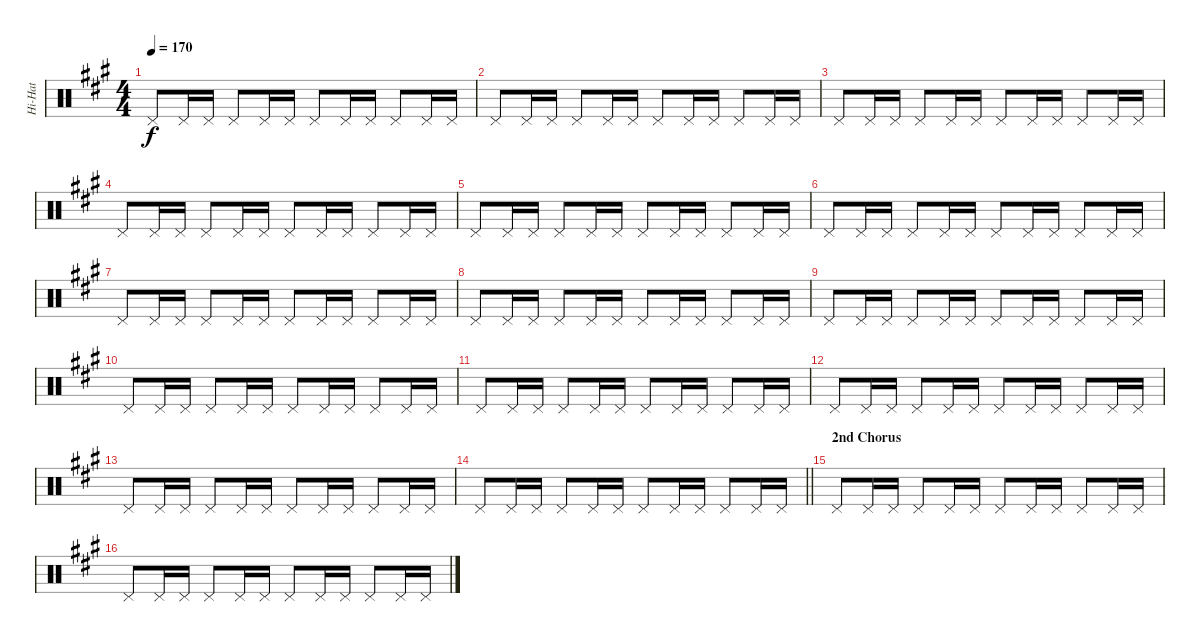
\track ("Hi-Hat" "Hi-Hat") {instrument percussion}
\staff {score}
\articulation defaults
\ts (4 4)
\tempo 170
\clef neutral
\ks a "Pedal Hi-Hat (hit)".8{dy f} "Pedal Hi-Hat (hit)".16 "Pedal Hi-Hat (hit)".16 "Pedal Hi-Hat (hit)".8 "Pedal Hi-Hat (hit)".16 "Pedal Hi-Hat (hit)".16 "Pedal Hi-Hat (hit)".8 "Pedal Hi-Hat (hit)".16 "Pedal Hi-Hat (hit)".16 "Pedal Hi-Hat (hit)".8 "Pedal Hi-Hat (hit)".16 "Pedal Hi-Hat (hit)".16
|
"Pedal Hi-Hat (hit)".8 "Pedal Hi-Hat (hit)".16 "Pedal Hi-Hat (hit)".16 "Pedal Hi-Hat (hit)".8 "Pedal Hi-Hat (hit)".16 "Pedal Hi-Hat (hit)".16 "Pedal Hi-Hat (hit)".8 "Pedal Hi-Hat (hit)".16 "Pedal Hi-Hat (hit)".16 "Pedal Hi-Hat (hit)".8 "Pedal Hi-Hat (hit)".16 "Pedal Hi-Hat (hit)".16 |
"Pedal Hi-Hat (hit)".8 "Pedal Hi-Hat (hit)".16 "Pedal Hi-Hat (hit)".16 "Pedal Hi-Hat (hit)".8 "Pedal Hi-Hat (hit)".16 "Pedal Hi-Hat (hit)".16 "Pedal Hi-Hat (hit)".8 "Pedal Hi-Hat (hit)".16 "Pedal Hi-Hat (hit)".16 "Pedal Hi-Hat (hit)".8 "Pedal Hi-Hat (hit)".16 "Pedal Hi-Hat (hit)".16 |
"Pedal Hi-Hat (hit)".8 "Pedal Hi-Hat (hit)".16 "Pedal Hi-Hat (hit)".16 "Pedal Hi-Hat (hit)".8 "Pedal Hi-Hat (hit)".16 "Pedal Hi-Hat (hit)".16 "Pedal Hi-Hat (hit)".8 "Pedal Hi-Hat (hit)".16 "Pedal Hi-Hat (hit)".16 "Pedal Hi-Hat (hit)".8 "Pedal Hi-Hat (hit)".16 "Pedal Hi-Hat (hit)".16 |
"Pedal Hi-Hat (hit)".8 "Pedal Hi-Hat (hit)".16 "Pedal Hi-Hat (hit)".16 "Pedal Hi-Hat (hit)".8 "Pedal Hi-Hat (hit)".16 "Pedal Hi-Hat (hit)".16 "Pedal Hi-Hat (hit)".8 "Pedal Hi-Hat (hit)".16 "Pedal Hi-Hat (hit)".16 "Pedal Hi-Hat (hit)".8 "Pedal Hi-Hat (hit)".16 "Pedal Hi-Hat (hit)".16 |
"Pedal Hi-Hat (hit)".8 "Pedal Hi-Hat (hit)".16 "Pedal Hi-Hat (hit)".16 "Pedal Hi-Hat (hit)".8 "Pedal Hi-Hat (hit)".16 "Pedal Hi-Hat (hit)".16 "Pedal Hi-Hat (hit)".8 "Pedal Hi-Hat (hit)".16 "Pedal Hi-Hat (hit)".16 "Pedal Hi-Hat (hit)".8 "Pedal Hi-Hat (hit)".16 "Pedal Hi-Hat (hit)".16 |
"Pedal Hi-Hat (hit)".8 "Pedal Hi-Hat (hit)".16 "Pedal Hi-Hat (hit)".16 "Pedal Hi-Hat (hit)".8 "Pedal Hi-Hat (hit)".16 "Pedal Hi-Hat (hit)".16 "Pedal Hi-Hat (hit)".8 "Pedal Hi-Hat (hit)".16 "Pedal Hi-Hat (hit)".16 "Pedal Hi-Hat (hit)".8 "Pedal Hi-Hat (hit)".16 "Pedal Hi-Hat (hit)".16 |
"Pedal Hi-Hat (hit)".8 "Pedal Hi-Hat (hit)".16 "Pedal Hi-Hat (hit)".16 "Pedal Hi-Hat (hit)".8 "Pedal Hi-Hat (hit)".16 "Pedal Hi-Hat (hit)".16 "Pedal Hi-Hat (hit)".8 "Pedal Hi-Hat (hit)".16 "Pedal Hi-Hat (hit)".16 "Pedal Hi-Hat (hit)".8 "Pedal Hi-Hat (hit)".16 "Pedal Hi-Hat (hit)".16 |
"Pedal Hi-Hat (hit)".8 "Pedal Hi-Hat (hit)".16 "Pedal Hi-Hat (hit)".16 "Pedal Hi-Hat (hit)".8 "Pedal Hi-Hat (hit)".16 "Pedal Hi-Hat (hit)".16 "Pedal Hi-Hat (hit)".8 "Pedal Hi-Hat (hit)".16 "Pedal Hi-Hat (hit)".16 "Pedal Hi-Hat (hit)".8 "Pedal Hi-Hat (hit)".16 "Pedal Hi-Hat (hit)".16 |
"Pedal Hi-Hat (hit)".8 "Pedal Hi-Hat (hit)".16 "Pedal Hi-Hat (hit)".16 "Pedal Hi-Hat (hit)".8 "Pedal Hi-Hat (hit)".16 "Pedal Hi-Hat (hit)".16 "Pedal Hi-Hat (hit)".8 "Pedal Hi-Hat (hit)".16 "Pedal Hi-Hat (hit)".16 "Pedal Hi-Hat (hit)".8 "Pedal Hi-Hat (hit)".16 "Pedal Hi-Hat (hit)".16 |
"Pedal Hi-Hat (hit)".8 "Pedal Hi-Hat (hit)".16 "Pedal Hi-Hat (hit)".16 "Pedal Hi-Hat (hit)".8 "Pedal Hi-Hat (hit)".16 "Pedal Hi-Hat (hit)".16 "Pedal Hi-Hat (hit)".8 "Pedal Hi-Hat (hit)".16 "Pedal Hi-Hat (hit)".16 "Pedal Hi-Hat (hit)".8 "Pedal Hi-Hat (hit)".16 "Pedal Hi-Hat (hit)".16 |
"Pedal Hi-Hat (hit)".8 "Pedal Hi-Hat (hit)".16 "Pedal Hi-Hat (hit)".16 "Pedal Hi-Hat (hit)".8 "Pedal Hi-Hat (hit)".16 "Pedal Hi-Hat (hit)".16 "Pedal Hi-Hat (hit)".8 "Pedal Hi-Hat (hit)".16 "Pedal Hi-Hat (hit)".16 "Pedal Hi-Hat (hit)".8 "Pedal Hi-Hat (hit)".16 "Pedal Hi-Hat (hit)".16 |
"Pedal Hi-Hat (hit)".8 "Pedal Hi-Hat (hit)".16 "Pedal Hi-Hat (hit)".16 "Pedal Hi-Hat (hit)".8 "Pedal Hi-Hat (hit)".16 "Pedal Hi-Hat (hit)".16 "Pedal Hi-Hat (hit)".8 "Pedal Hi-Hat (hit)".16 "Pedal Hi-Hat (hit)".16 "Pedal Hi-Hat (hit)".8 "Pedal Hi-Hat (hit)".16 "Pedal Hi-Hat (hit)".16 |
\barLineRight lightlight "Pedal Hi-Hat (hit)".8 "Pedal Hi-Hat (hit)".16 "Pedal Hi-Hat (hit)".16 "Pedal Hi-Hat (hit)".8 "Pedal Hi-Hat (hit)".16 "Pedal Hi-Hat (hit)".16 "Pedal Hi-Hat (hit)".8 "Pedal Hi-Hat (hit)".16 "Pedal Hi-Hat (hit)".16 "Pedal Hi-Hat (hit)".8 "Pedal Hi-Hat (hit)".16 "Pedal Hi-Hat (hit)".16
|
\section ("" "2nd Chorus")
"Pedal Hi-Hat (hit)".8 "Pedal Hi-Hat (hit)".16 "Pedal Hi-Hat (hit)".16 "Pedal Hi-Hat (hit)".8 "Pedal Hi-Hat (hit)".16 "Pedal Hi-Hat (hit)".16 "Pedal Hi-Hat (hit)".8 "Pedal Hi-Hat (hit)".16 "Pedal Hi-Hat (hit)".16 "Pedal Hi-Hat (hit)".8 "Pedal Hi-Hat (hit)".16 "Pedal Hi-Hat (hit)".16 |
"Pedal Hi-Hat (hit)".8 "Pedal Hi-Hat (hit)".16 "Pedal Hi-Hat (hit)".16 "Pedal Hi-Hat (hit)".8 "Pedal Hi-Hat (hit)".16 "Pedal Hi-Hat (hit)".16 "Pedal Hi-Hat (hit)".8 "Pedal Hi-Hat (hit)".16 "Pedal Hi-Hat (hit)".16 "Pedal Hi-Hat (hit)".8 "Pedal Hi-Hat (hit)".16 "Pedal Hi-Hat (hit)".16
